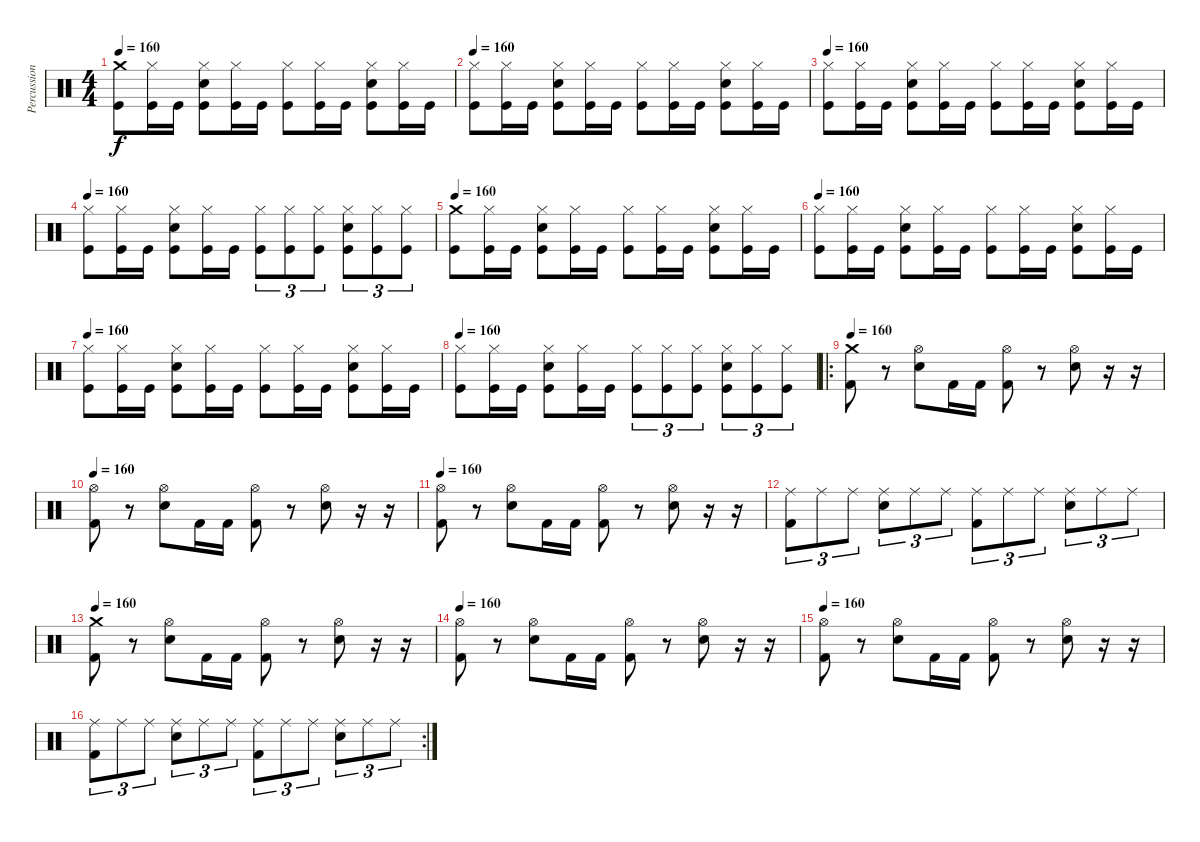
\track ("Percussions" "Percussion") {instrument percussion}
\staff {score}
\articulation defaults
\ts (4 4)
\tempo 160
\clef neutral
\ks c
("Kick (hit)" "Crash medium (hit)").8{dy f} ("Kick (hit)" "Hi-Hat (closed)").16 "Kick (hit)".16 ("Kick (hit)" "Snare (hit) 2" "Hi-Hat (closed)").8 ("Kick (hit)" "Hi-Hat (closed)").16 "Kick (hit)".16 ("Kick (hit)" "Hi-Hat (closed)").8 ("Kick (hit)" "Hi-Hat (closed)").16 "Kick (hit)".16 ("Kick (hit)" "Snare (hit) 2" "Hi-Hat (closed)").8 ("Kick (hit)" "Hi-Hat (closed)").16 "Kick (hit)".16 |
\tempo 160
("Kick (hit)" "Hi-Hat (closed)").8 ("Kick (hit)" "Hi-Hat (closed)").16 "Kick (hit)".16 ("Kick (hit)" "Snare (hit) 2" "Hi-Hat (closed)").8 ("Kick (hit)" "Hi-Hat (closed)").16 "Kick (hit)".16 ("Kick (hit)" "Hi-Hat (closed)").8 ("Kick (hit)" "Hi-Hat (closed)").16 "Kick (hit)".16 ("Kick (hit)" "Snare (hit) 2" "Hi-Hat (closed)").8 ("Kick (hit)" "Hi-Hat (closed)").16 "Kick (hit)".16 |
\tempo 160
("Kick (hit)" "Hi-Hat (closed)").8 ("Kick (hit)" "Hi-Hat (closed)").16 "Kick (hit)".16 ("Kick (hit)" "Snare (hit) 2" "Hi-Hat (closed)").8 ("Kick (hit)" "Hi-Hat (closed)").16 "Kick (hit)".16 ("Kick (hit)" "Hi-Hat (closed)").8 ("Kick (hit)" "Hi-Hat (closed)").16 "Kick (hit)".16 ("Kick (hit)" "Snare (hit) 2" "Hi-Hat (closed)").8 ("Kick (hit)" "Hi-Hat (closed)").16 "Kick (hit)".16 |
\tempo 160
("Kick (hit)" "Hi-Hat (closed)").8 ("Kick (hit)" "Hi-Hat (closed)").16 "Kick (hit)".16 ("Kick (hit)" "Snare (hit) 2" "Hi-Hat (closed)").8 ("Kick (hit)" "Hi-Hat (closed)").16 "Kick (hit)".16 ("Kick (hit)" "Hi-Hat (closed)").8{tu (3 2)} ("Kick (hit)" "Hi-Hat (closed)").8{tu (3 2)} ("Kick (hit)" "Hi-Hat (closed)").8{tu (3 2)} ("Kick (hit)" "Snare (hit) 2" "Hi-Hat (closed)").8{tu (3 2)} ("Kick (hit)" "Hi-Hat (closed)").8{tu (3 2)} ("Kick (hit)" "Hi-Hat (closed)").8{tu (3 2)} |
\tempo 160
("Kick (hit)" "Crash medium (hit)").8 ("Kick (hit)" "Hi-Hat (closed)").16 "Kick (hit)".16 ("Kick (hit)" "Snare (hit) 2" "Hi-Hat (closed)").8 ("Kick (hit)" "Hi-Hat (closed)").16 "Kick (hit)".16 ("Kick (hit)" "Hi-Hat (closed)").8 ("Kick (hit)" "Hi-Hat (closed)").16 "Kick (hit)".16 ("Kick (hit)" "Snare (hit) 2" "Hi-Hat (closed)").8 ("Kick (hit)" "Hi-Hat (closed)").16 "Kick (hit)".16 |
\tempo 160
("Kick (hit)" "Hi-Hat (closed)").8 ("Kick (hit)" "Hi-Hat (closed)").16 "Kick (hit)".16 ("Kick (hit)" "Snare (hit) 2" "Hi-Hat (closed)").8 ("Kick (hit)" "Hi-Hat (closed)").16 "Kick (hit)".16 ("Kick (hit)" "Hi-Hat (closed)").8 ("Kick (hit)" "Hi-Hat (closed)").16 "Kick (hit)".16 ("Kick (hit)" "Snare (hit) 2" "Hi-Hat (closed)").8 ("Kick (hit)" "Hi-Hat (closed)").16 "Kick (hit)".16 |
\tempo 160
("Kick (hit)" "Hi-Hat (closed)").8 ("Kick (hit)" "Hi-Hat (closed)").16 "Kick (hit)".16 ("Kick (hit)" "Snare (hit) 2" "Hi-Hat (closed)").8 ("Kick (hit)" "Hi-Hat (closed)").16 "Kick (hit)".16 ("Kick (hit)" "Hi-Hat (closed)").8 ("Kick (hit)" "Hi-Hat (closed)").16 "Kick (hit)".16 ("Kick (hit)" "Snare (hit) 2" "Hi-Hat (closed)").8 ("Kick (hit)" "Hi-Hat (closed)").16 "Kick (hit)".16 |
\tempo 160
("Kick (hit)" "Hi-Hat (closed)").8 ("Kick (hit)" "Hi-Hat (closed)").16 "Kick (hit)".16 ("Kick (hit)" "Snare (hit) 2" "Hi-Hat (closed)").8 ("Kick (hit)" "Hi-Hat (closed)").16 "Kick (hit)".16 ("Kick (hit)" "Hi-Hat (closed)").8{tu (3 2)} ("Kick (hit)" "Hi-Hat (closed)").8{tu (3 2)} ("Kick (hit)" "Hi-Hat (closed)").8{tu (3 2)} ("Kick (hit)" "Snare (hit) 2" "Hi-Hat (closed)").8{tu (3 2)} ("Kick (hit)" "Hi-Hat (closed)").8{tu (3 2)} ("Kick (hit)" "Hi-Hat (closed)").8{tu (3 2)} |
\ro
\tempo 160
("Kick (hit) 2" "Crash medium (hit)").8 r.8 ("Electric Snare (hit)" "Hi-Hat (open)").8 "Kick (hit) 2".16 "Kick (hit) 2".16 ("Kick (hit) 2" "Hi-Hat (open)").8 r.8 ("Electric Snare (hit)" "Hi-Hat (open)").8 r.16 r.16 |
\tempo 160
("Kick (hit) 2" "Hi-Hat (open)").8 r.8 ("Electric Snare (hit)" "Hi-Hat (open)").8 "Kick (hit) 2".16 "Kick (hit) 2".16 ("Kick (hit) 2" "Hi-Hat (open)").8 r.8 ("Electric Snare (hit)" "Hi-Hat (open)").8 r.16 r.16 |
\tempo 160
("Kick (hit) 2" "Hi-Hat (open)").8 r.8 ("Electric Snare (hit)" "Hi-Hat (open)").8 "Kick (hit) 2".16 "Kick (hit) 2".16 ("Kick (hit) 2" "Hi-Hat (open)").8 r.8 ("Electric Snare (hit)" "Hi-Hat (open)").8 r.16 r.16 |
("Kick (hit) 2" "Ride (middle)").8{tu (3 2)} "Ride (middle)".8{tu (3 2)} "Ride (middle)".8{tu (3 2)} ("Electric Snare (hit)" "Ride (middle)").8{tu (3 2)} "Ride (middle)".8{tu (3 2)} "Ride (middle)".8{tu (3 2)} ("Kick (hit) 2" "Ride (middle)").8{tu (3 2)} "Ride (middle)".8{tu (3 2)} "Ride (middle)".8{tu (3 2)} ("Electric Snare (hit)" "Ride (middle)").8{tu (3 2)} "Ride (middle)".8{tu (3 2)} "Ride (middle)".8{tu (3 2)} |
\tempo 160
("Kick (hit) 2" "Crash medium (hit)").8 r.8 ("Electric Snare (hit)" "Hi-Hat (open)").8 "Kick (hit) 2".16 "Kick (hit) 2".16 ("Kick (hit) 2" "Hi-Hat (open)").8 r.8 ("Electric Snare (hit)" "Hi-Hat (open)").8 r.16 r.16 |
\tempo 160
("Kick (hit) 2" "Hi-Hat (open)").8 r.8 ("Electric Snare (hit)" "Hi-Hat (open)").8 "Kick (hit) 2".16 "Kick (hit) 2".16 ("Kick (hit) 2" "Hi-Hat (open)").8 r.8 ("Electric Snare (hit)" "Hi-Hat (open)").8 r.16 r.16 |
\tempo 160
("Kick (hit) 2" "Hi-Hat (open)").8 r.8 ("Electric Snare (hit)" "Hi-Hat (open)").8 "Kick (hit) 2".16 "Kick (hit) 2".16 ("Kick (hit) 2" "Hi-Hat (open)").8 r.8 ("Electric Snare (hit)" "Hi-Hat (open)").8 r.16 r.16 |
\rc 2
("Kick (hit) 2" "Ride (middle)").8{tu (3 2)} "Ride (middle)".8{tu (3 2)} "Ride (middle)".8{tu (3 2)} ("Electric Snare (hit)" "Ride (middle)").8{tu (3 2)} "Ride (middle)".8{tu (3 2)} "Ride (middle)".8{tu (3 2)} ("Kick (hit) 2" "Ride (middle)").8{tu (3 2)} "Ride (middle)".8{tu (3 2)} "Ride (middle)".8{tu (3 2)} ("Electric Snare (hit)" "Ride (middle)").8{tu (3 2)} "Ride (middle)".8{tu (3 2)} "Ride (middle)".8{tu (3 2)}
